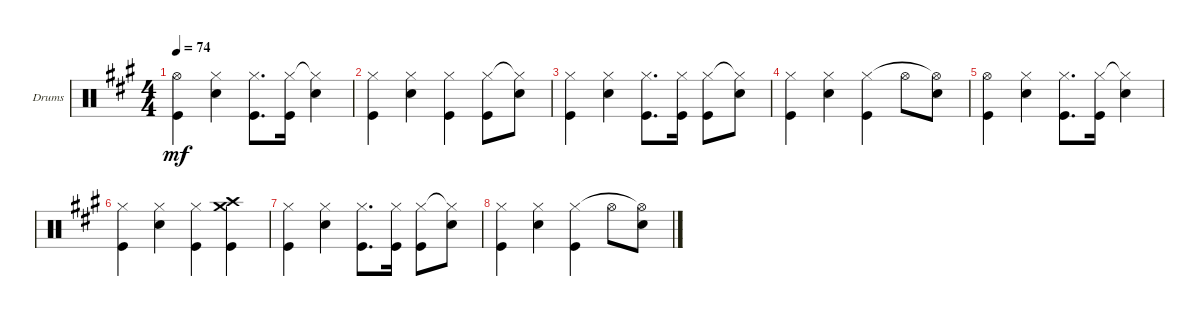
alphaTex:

\bracketExtendMode groupsimilarinstruments
\firstSystemTrackNameOrientation horizontal
\otherSystemsTrackNameOrientation horizontal
\track ("Drumkit" "Drums") {instrument percussion}
\staff {score}
\articulation defaults
\ts (4 4)
\tempo 74
\clef neutral
\scale
0.333333
\ks a
("Kick (hit)" "Hi-Hat (open)").4{dy mf} ("Snare (hit) 2" "Hi-Hat (closed)").4 ("Kick (hit)" "Hi-Hat (closed)").8{d} ("Kick (hit)" "Hi-Hat (closed)").16 ("Snare (hit) 2" "Hi-Hat (closed)"{t}).4 |
\scale
0.333333 ("Kick (hit)" "Hi-Hat (closed)").4 ("Snare (hit) 2" "Hi-Hat (closed)").4 ("Kick (hit)" "Hi-Hat (closed)").4 ("Kick (hit)" "Hi-Hat (closed)").8 ("Snare (hit) 2" "Hi-Hat (closed)"{t}).8 |
\scale
0.333333 ("Kick (hit)" "Hi-Hat (closed)").4 ("Snare (hit) 2" "Hi-Hat (closed)").4 ("Kick (hit)" "Hi-Hat (closed)").8{d} ("Kick (hit)" "Hi-Hat (closed)").16 ("Kick (hit)" "Hi-Hat (closed)").8 ("Snare (hit) 2" "Hi-Hat (closed)"{t}).8 |
\scale
0.333333 ("Kick (hit)" "Hi-Hat (closed)").4 ("Snare (hit) 2" "Hi-Hat (closed)").4 ("Kick (hit)" "Hi-Hat (closed)").4 "Hi-Hat (open)".8 ("Snare (hit) 2" "Hi-Hat (open)"{t}).8 |
\scale
0.333333 ("Kick (hit)" "Hi-Hat (open)").4 ("Snare (hit) 2" "Hi-Hat (closed)").4 ("Kick (hit)" "Hi-Hat (closed)").8{d} ("Kick (hit)" "Hi-Hat (closed)").16 ("Snare (hit) 2" "Hi-Hat (closed)"{t}).4 |
\scale
0.333333 ("Kick (hit)" "Hi-Hat (closed)").4 ("Snare (hit) 2" "Hi-Hat (closed)").4 ("Kick (hit)" "Hi-Hat (closed)").4 ("Kick (hit)" "Crash high (hit)" "Crash medium (hit)").4 |
("Kick (hit)" "Hi-Hat (closed)").4 ("Snare (hit) 2" "Hi-Hat (closed)").4 ("Kick (hit)" "Hi-Hat (closed)").8{d} ("Kick (hit)" "Hi-Hat (closed)").16 ("Kick (hit)" "Hi-Hat (closed)").8 ("Snare (hit) 2" "Hi-Hat (closed)"{t}).8 |
("Kick (hit)" "Hi-Hat (closed)").4 ("Snare (hit) 2" "Hi-Hat (closed)").4 ("Kick (hit)" "Hi-Hat (closed)").4 "Hi-Hat (open)".8 ("Snare (hit) 2" "Hi-Hat (open)"{t}).8
